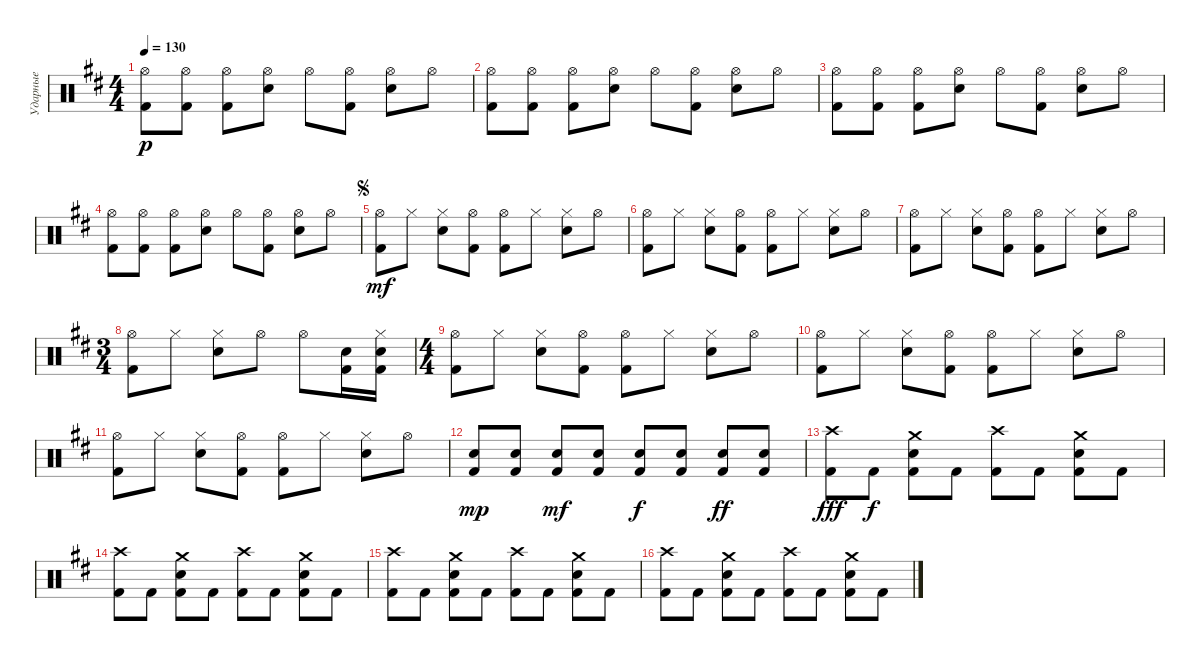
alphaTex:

\track ("Ударные" "Ударные") {instrument percussion}
\staff {score}
\articulation defaults
\ts (4 4)
\tempo 130
\clef neutral
\ks d
("Kick (hit) 2" "Hi-Hat (open)").8{dy p} ("Kick (hit) 2" "Hi-Hat (open)").8 ("Kick (hit) 2" "Hi-Hat (open)").8 ("Electric Snare (hit)" "Hi-Hat (open)").8 "Hi-Hat (open)".8 ("Kick (hit) 2" "Hi-Hat (open)").8 ("Electric Snare (hit)" "Hi-Hat (open)").8 "Hi-Hat (open)".8 |
("Kick (hit) 2" "Hi-Hat (open)").8 ("Kick (hit) 2" "Hi-Hat (open)").8 ("Kick (hit) 2" "Hi-Hat (open)").8 ("Electric Snare (hit)" "Hi-Hat (open)").8 "Hi-Hat (open)".8 ("Kick (hit) 2" "Hi-Hat (open)").8 ("Electric Snare (hit)" "Hi-Hat (open)").8 "Hi-Hat (open)".8 |
("Kick (hit) 2" "Hi-Hat (open)").8 ("Kick (hit) 2" "Hi-Hat (open)").8 ("Kick (hit) 2" "Hi-Hat (open)").8 ("Electric Snare (hit)" "Hi-Hat (open)").8 "Hi-Hat (open)".8 ("Kick (hit) 2" "Hi-Hat (open)").8 ("Electric Snare (hit)" "Hi-Hat (open)").8 "Hi-Hat (open)".8 |
("Kick (hit) 2" "Hi-Hat (open)").8 ("Kick (hit) 2" "Hi-Hat (open)").8 ("Kick (hit) 2" "Hi-Hat (open)").8 ("Electric Snare (hit)" "Hi-Hat (open)").8 "Hi-Hat (open)".8 ("Kick (hit) 2" "Hi-Hat (open)").8 ("Electric Snare (hit)" "Hi-Hat (open)").8 "Hi-Hat (open)".8 |
\jump segno
("Kick (hit) 2" "Hi-Hat (open)").8{dy mf} "Hi-Hat (closed)".8 ("Electric Snare (hit)" "Hi-Hat (closed)").8 ("Kick (hit) 2" "Hi-Hat (open)").8 ("Kick (hit) 2" "Hi-Hat (open)").8 "Hi-Hat (closed)".8 ("Electric Snare (hit)" "Hi-Hat (closed)").8 "Hi-Hat (open)".8 |
("Kick (hit) 2" "Hi-Hat (open)").8 "Hi-Hat (closed)".8 ("Electric Snare (hit)" "Hi-Hat (closed)").8 ("Kick (hit) 2" "Hi-Hat (open)").8 ("Kick (hit) 2" "Hi-Hat (open)").8 "Hi-Hat (closed)".8 ("Electric Snare (hit)" "Hi-Hat (closed)").8 "Hi-Hat (open)".8 |
("Kick (hit) 2" "Hi-Hat (open)").8 "Hi-Hat (closed)".8 ("Electric Snare (hit)" "Hi-Hat (closed)").8 ("Kick (hit) 2" "Hi-Hat (open)").8 ("Kick (hit) 2" "Hi-Hat (open)").8 "Hi-Hat (closed)".8 ("Electric Snare (hit)" "Hi-Hat (closed)").8 "Hi-Hat (open)".8 |
\ts (3 4)
("Kick (hit) 2" "Hi-Hat (open)").8 "Hi-Hat (closed)".8 ("Electric Snare (hit)" "Hi-Hat (closed)").8 "Hi-Hat (open)".8 "Hi-Hat (open)".8 ("Electric Snare (hit)" "Kick (hit) 2").16 ("Electric Snare (hit)" "Hi-Hat (closed)" "Kick (hit) 2").16 |
\ts (4 4)
("Kick (hit) 2" "Hi-Hat (open)").8 "Hi-Hat (closed)".8 ("Electric Snare (hit)" "Hi-Hat (closed)").8 ("Kick (hit) 2" "Hi-Hat (open)").8 ("Kick (hit) 2" "Hi-Hat (open)").8 "Hi-Hat (closed)".8 ("Electric Snare (hit)" "Hi-Hat (closed)").8 "Hi-Hat (open)".8 |
("Kick (hit) 2" "Hi-Hat (open)").8 "Hi-Hat (closed)".8 ("Electric Snare (hit)" "Hi-Hat (closed)").8 ("Kick (hit) 2" "Hi-Hat (open)").8 ("Kick (hit) 2" "Hi-Hat (open)").8 "Hi-Hat (closed)".8 ("Electric Snare (hit)" "Hi-Hat (closed)").8 "Hi-Hat (open)".8 |
("Kick (hit) 2" "Hi-Hat (open)").8 "Hi-Hat (closed)".8 ("Electric Snare (hit)" "Hi-Hat (closed)").8 ("Kick (hit) 2" "Hi-Hat (open)").8 ("Kick (hit) 2" "Hi-Hat (open)").8 "Hi-Hat (closed)".8 ("Electric Snare (hit)" "Hi-Hat (closed)").8 "Hi-Hat (open)".8 |
("Kick (hit) 2" "Electric Snare (hit)").8{dy mp} ("Kick (hit) 2" "Electric Snare (hit)").8 ("Kick (hit) 2" "Electric Snare (hit)").8{dy mf} ("Kick (hit) 2" "Electric Snare (hit)").8 ("Kick (hit) 2" "Electric Snare (hit)").8{dy f} ("Kick (hit) 2" "Electric Snare (hit)").8 ("Kick (hit) 2" "Electric Snare (hit)").8{dy ff} ("Kick (hit) 2" "Electric Snare (hit)").8 |
("Kick (hit) 2" "Crash high (hit)").8{dy fff} "Kick (hit) 2".8{dy f} ("Kick (hit) 2" "Electric Snare (hit)" "Crash medium (hit)").8 "Kick (hit) 2".8 ("Kick (hit) 2" "Crash high (hit)").8 "Kick (hit) 2".8 ("Kick (hit) 2" "Electric Snare (hit)" "Crash medium (hit)").8 "Kick (hit) 2".8 |
("Kick (hit) 2" "Crash high (hit)").8 "Kick (hit) 2".8 ("Kick (hit) 2" "Electric Snare (hit)" "Crash medium (hit)").8 "Kick (hit) 2".8 ("Kick (hit) 2" "Crash high (hit)").8 "Kick (hit) 2".8 ("Kick (hit) 2" "Electric Snare (hit)" "Crash medium (hit)").8 "Kick (hit) 2".8 |
("Kick (hit) 2" "Crash high (hit)").8 "Kick (hit) 2".8 ("Kick (hit) 2" "Electric Snare (hit)" "Crash medium (hit)").8 "Kick (hit) 2".8 ("Kick (hit) 2" "Crash high (hit)").8 "Kick (hit) 2".8 ("Kick (hit) 2" "Electric Snare (hit)" "Crash medium (hit)").8 "Kick (hit) 2".8 |
("Kick (hit) 2" "Crash high (hit)").8 "Kick (hit) 2".8 ("Kick (hit) 2" "Electric Snare (hit)" "Crash medium (hit)").8 "Kick (hit) 2".8 ("Kick (hit) 2" "Crash high (hit)").8 "Kick (hit) 2".8 ("Kick (hit) 2" "Electric Snare (hit)" "Crash medium (hit)").8 "Kick (hit) 2".8
